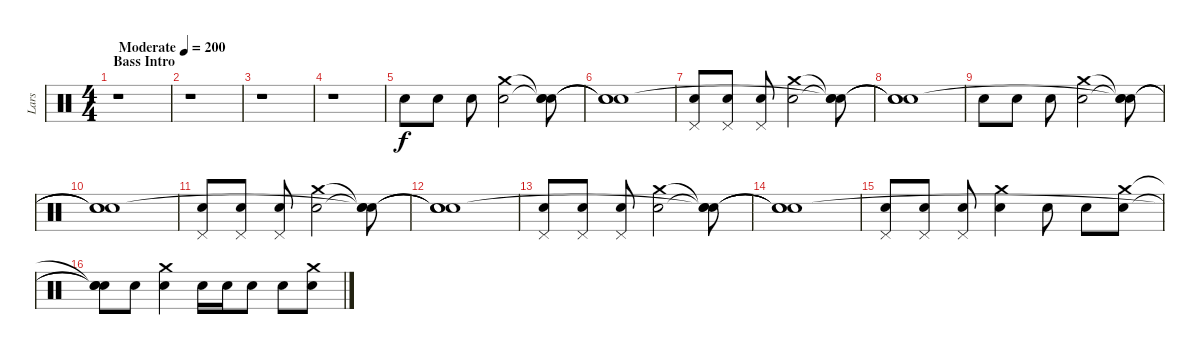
\track ("Lars" "Lars") {instrument percussion}
\staff {score}
\articulation defaults
\ts (4 4)
\section ("" "Bass Intro")
\tempo (200 "Moderate")
\clef neutral
\ks c
r.1{dy f} |
r.1 |
r.1 |
r.1 |
"Snare (hit) 2".8 "Snare (hit) 2".8 "Snare (hit) 2".8 ("Crash medium (hit)" "Snare (hit) 2").2 ("Snare (hit)"{t} "Snare (hit)"{t} "Snare (hit)").8 |
("Snare (hit)"{t} "Snare (hit)"{t} "Snare (hit)"{t}).1 |
("Pedal Hi-Hat (hit)" "Snare (hit) 2").8 ("Pedal Hi-Hat (hit)" "Snare (hit) 2").8 ("Pedal Hi-Hat (hit)" "Snare (hit) 2").8 ("Crash medium (hit)" "Snare (hit) 2").2 ("Snare (hit)"{t} "Snare (hit)"{t} "Snare (hit)"{t}).8 |
("Snare (hit)"{t} "Snare (hit)"{t} "Snare (hit)"{t}).1 |
"Snare (hit) 2".8 "Snare (hit) 2".8 "Snare (hit) 2".8 ("Crash medium (hit)" "Snare (hit) 2").2 ("Snare (hit)"{t} "Snare (hit)"{t} "Snare (hit)"{t}).8 |
("Snare (hit)"{t} "Snare (hit)"{t} "Snare (hit)"{t}).1 |
("Pedal Hi-Hat (hit)" "Snare (hit) 2").8 ("Pedal Hi-Hat (hit)" "Snare (hit) 2").8 ("Pedal Hi-Hat (hit)" "Snare (hit) 2").8 ("Crash medium (hit)" "Snare (hit) 2").2 ("Snare (hit)"{t} "Snare (hit)"{t} "Snare (hit)"{t}).8 |
("Snare (hit)"{t} "Snare (hit)"{t} "Snare (hit)"{t}).1 |
("Pedal Hi-Hat (hit)" "Snare (hit) 2").8 ("Pedal Hi-Hat (hit)" "Snare (hit) 2").8 ("Pedal Hi-Hat (hit)" "Snare (hit) 2").8 ("Crash medium (hit)" "Snare (hit) 2").2 ("Snare (hit)"{t} "Snare (hit)"{t} "Snare (hit)"{t}).8 |
("Snare (hit)"{t} "Snare (hit)"{t} "Snare (hit)"{t}).1 |
("Pedal Hi-Hat (hit)" "Snare (hit) 2").8 ("Pedal Hi-Hat (hit)" "Snare (hit) 2").8 ("Pedal Hi-Hat (hit)" "Snare (hit) 2").8 ("Crash medium (hit)" "Snare (hit) 2").4 "Snare (hit) 2".8 "Snare (hit) 2".8 ("Crash medium (hit)" "Snare (hit) 2").8 |
("Snare (hit)"{t} "Snare (hit)"{t} "Snare (hit)"{t}).8 "Snare (hit) 2".8 ("Crash medium (hit)" "Snare (hit) 2").4 "Snare (hit) 2".16 "Snare (hit) 2".16 "Snare (hit) 2".8 "Snare (hit) 2".8 ("Crash medium (hit)" "Snare (hit) 2").8
